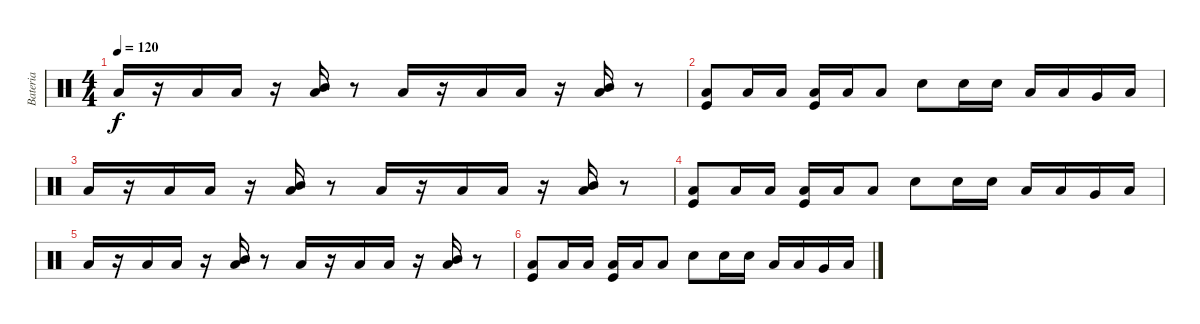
\track ("Bateria" "Bateria") {instrument percussion}
\staff {score}
\articulation defaults
\ts (4 4)
\tempo 120
\clef neutral
\ks c "Low Tom (hit)".16{dy f}
r.16 "Low Floor Tom (hit)".16 "Low Tom (hit)".16 r.16 ("Mid Tom (hit)" "Low Floor Tom (hit)").16 r.8 "Low Tom (hit)".16 r.16 "Low Floor Tom (hit)".16 "Low Tom (hit)".16 r.16 ("Mid Tom (hit)" "Low Floor Tom (hit)").16 r.8 |
("Low Floor Tom (hit)" "Kick (hit)").8 "Low Floor Tom (hit)".16 "Low Floor Tom (hit)".16 ("Low Floor Tom (hit)" "Kick (hit)").16 "Low Floor Tom (hit)".16 "Low Floor Tom (hit)".8 "Snare (hit) 2".8 "Snare (hit) 2".16 "Snare (hit) 2".16 "Low Tom (hit)".16 "Low Tom (hit)".16 "Very Low Tom (hit)".16 "Low Floor Tom (hit)".16 |
"Low Tom (hit)".16 r.16 "Low Floor Tom (hit)".16 "Low Tom (hit)".16 r.16 ("Mid Tom (hit)" "Low Floor Tom (hit)").16 r.8 "Low Tom (hit)".16 r.16 "Low Floor Tom (hit)".16 "Low Tom (hit)".16 r.16 ("Mid Tom (hit)" "Low Floor Tom (hit)").16 r.8 |
("Low Floor Tom (hit)" "Kick (hit)").8 "Low Floor Tom (hit)".16 "Low Floor Tom (hit)".16 ("Low Floor Tom (hit)" "Kick (hit)").16 "Low Floor Tom (hit)".16 "Low Floor Tom (hit)".8 "Snare (hit) 2".8 "Snare (hit) 2".16 "Snare (hit) 2".16 "Low Tom (hit)".16 "Low Tom (hit)".16 "Very Low Tom (hit)".16 "Low Floor Tom (hit)".16 |
"Low Tom (hit)".16 r.16 "Low Floor Tom (hit)".16 "Low Tom (hit)".16 r.16 ("Mid Tom (hit)" "Low Floor Tom (hit)").16 r.8 "Low Tom (hit)".16 r.16 "Low Floor Tom (hit)".16 "Low Tom (hit)".16 r.16 ("Mid Tom (hit)" "Low Floor Tom (hit)").16 r.8 |
("Low Floor Tom (hit)" "Kick (hit)").8 "Low Floor Tom (hit)".16 "Low Floor Tom (hit)".16 ("Low Floor Tom (hit)" "Kick (hit)").16 "Low Floor Tom (hit)".16 "Low Floor Tom (hit)".8 "Snare (hit) 2".8 "Snare (hit) 2".16 "Snare (hit) 2".16 "Low Tom (hit)".16 "Low Tom (hit)".16 "Very Low Tom (hit)".16 "Low Floor Tom (hit)".16
